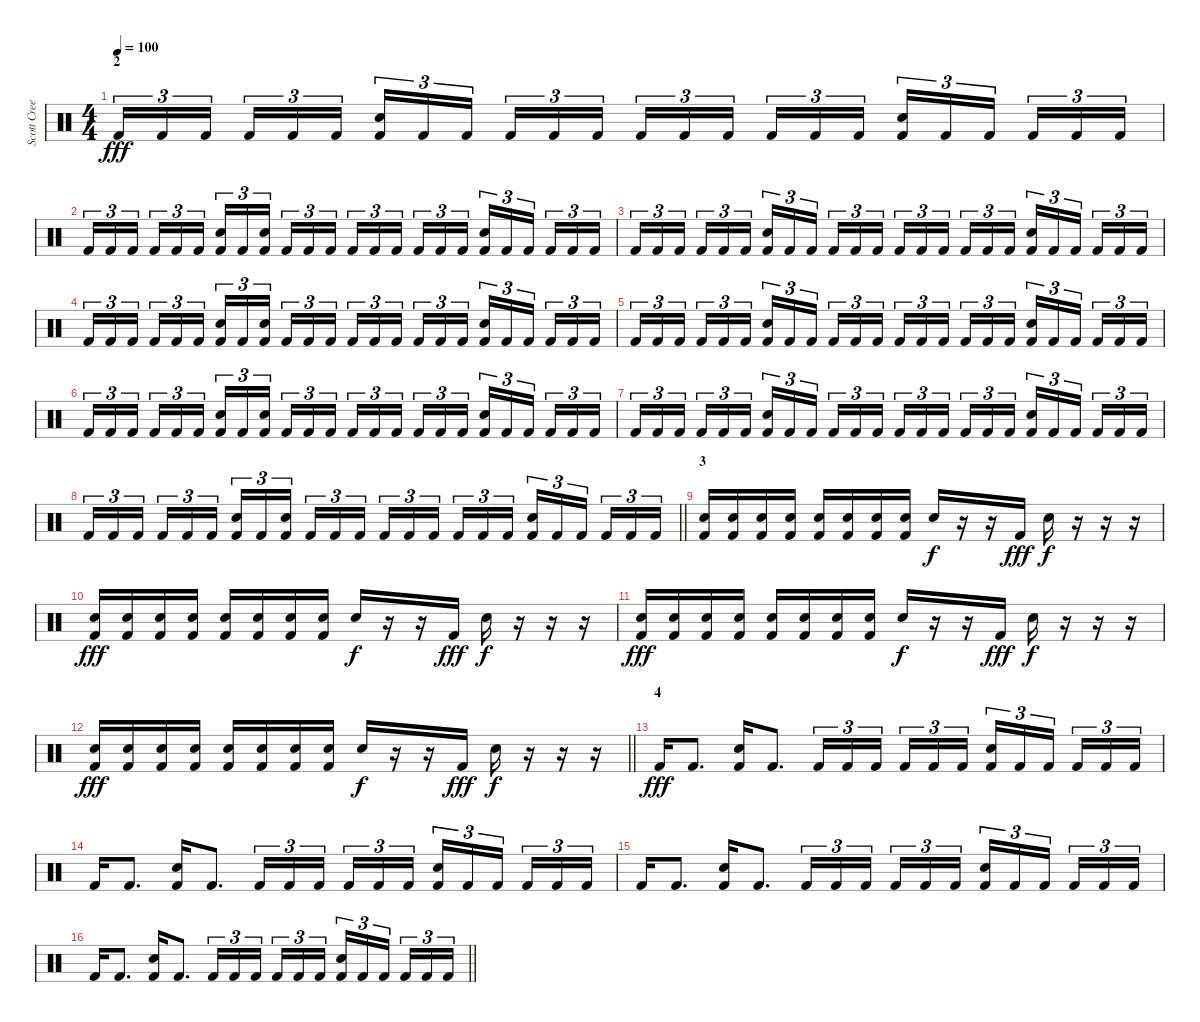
\track ("Scott Creekmore" "Scott Cree") {instrument percussion}
\staff {score}
\articulation defaults
\ts (4 4)
\section ("" "2")
\tempo 100
\clef neutral
\ks c "Kick (hit) 2".16{tu (3 2) dy fff} "Kick (hit) 2".16{tu (3 2)} "Kick (hit) 2".16{tu (3 2) beam splitsecondary} "Kick (hit) 2".16{tu (3 2)} "Kick (hit) 2".16{tu (3 2)} "Kick (hit) 2".16{tu (3 2)}
("Electric Snare (hit)" "Kick (hit) 2").16{tu (3 2)} "Kick (hit) 2".16{tu (3 2)} "Kick (hit) 2".16{tu (3 2) beam splitsecondary} "Kick (hit) 2".16{tu (3 2)} "Kick (hit) 2".16{tu (3 2)} "Kick (hit) 2".16{tu (3 2)} "Kick (hit) 2".16{tu (3 2)} "Kick (hit) 2".16{tu (3 2)} "Kick (hit) 2".16{tu (3 2) beam splitsecondary} "Kick (hit) 2".16{tu (3 2)} "Kick (hit) 2".16{tu (3 2)} "Kick (hit) 2".16{tu (3 2)} ("Electric Snare (hit)" "Kick (hit) 2").16{tu (3 2)} "Kick (hit) 2".16{tu (3 2)} "Kick (hit) 2".16{tu (3 2) beam splitsecondary} "Kick (hit) 2".16{tu (3 2)} "Kick (hit) 2".16{tu (3 2)} "Kick (hit) 2".16{tu (3 2)} |
"Kick (hit) 2".16{tu (3 2)} "Kick (hit) 2".16{tu (3 2)} "Kick (hit) 2".16{tu (3 2) beam splitsecondary} "Kick (hit) 2".16{tu (3 2)} "Kick (hit) 2".16{tu (3 2)} "Kick (hit) 2".16{tu (3 2)} ("Electric Snare (hit)" "Kick (hit) 2").16{tu (3 2)} "Kick (hit) 2".16{tu (3 2)} ("Electric Snare (hit)" "Kick (hit) 2").16{tu (3 2) beam splitsecondary} "Kick (hit) 2".16{tu (3 2)} "Kick (hit) 2".16{tu (3 2)} "Kick (hit) 2".16{tu (3 2)} "Kick (hit) 2".16{tu (3 2)} "Kick (hit) 2".16{tu (3 2)} "Kick (hit) 2".16{tu (3 2) beam splitsecondary} "Kick (hit) 2".16{tu (3 2)} "Kick (hit) 2".16{tu (3 2)} "Kick (hit) 2".16{tu (3 2)} ("Electric Snare (hit)" "Kick (hit) 2").16{tu (3 2)} "Kick (hit) 2".16{tu (3 2)} "Kick (hit) 2".16{tu (3 2) beam splitsecondary} "Kick (hit) 2".16{tu (3 2)} "Kick (hit) 2".16{tu (3 2)} "Kick (hit) 2".16{tu (3 2)} |
"Kick (hit) 2".16{tu (3 2)} "Kick (hit) 2".16{tu (3 2)} "Kick (hit) 2".16{tu (3 2) beam splitsecondary} "Kick (hit) 2".16{tu (3 2)} "Kick (hit) 2".16{tu (3 2)} "Kick (hit) 2".16{tu (3 2)} ("Electric Snare (hit)" "Kick (hit) 2").16{tu (3 2)} "Kick (hit) 2".16{tu (3 2)} "Kick (hit) 2".16{tu (3 2) beam splitsecondary} "Kick (hit) 2".16{tu (3 2)} "Kick (hit) 2".16{tu (3 2)} "Kick (hit) 2".16{tu (3 2)} "Kick (hit) 2".16{tu (3 2)} "Kick (hit) 2".16{tu (3 2)} "Kick (hit) 2".16{tu (3 2) beam splitsecondary} "Kick (hit) 2".16{tu (3 2)} "Kick (hit) 2".16{tu (3 2)} "Kick (hit) 2".16{tu (3 2)} ("Electric Snare (hit)" "Kick (hit) 2").16{tu (3 2)} "Kick (hit) 2".16{tu (3 2)} "Kick (hit) 2".16{tu (3 2) beam splitsecondary} "Kick (hit) 2".16{tu (3 2)} "Kick (hit) 2".16{tu (3 2)} "Kick (hit) 2".16{tu (3 2)} |
"Kick (hit) 2".16{tu (3 2)} "Kick (hit) 2".16{tu (3 2)} "Kick (hit) 2".16{tu (3 2) beam splitsecondary} "Kick (hit) 2".16{tu (3 2)} "Kick (hit) 2".16{tu (3 2)} "Kick (hit) 2".16{tu (3 2)} ("Electric Snare (hit)" "Kick (hit) 2").16{tu (3 2)} "Kick (hit) 2".16{tu (3 2)} ("Electric Snare (hit)" "Kick (hit) 2").16{tu (3 2) beam splitsecondary} "Kick (hit) 2".16{tu (3 2)} "Kick (hit) 2".16{tu (3 2)} "Kick (hit) 2".16{tu (3 2)} "Kick (hit) 2".16{tu (3 2)} "Kick (hit) 2".16{tu (3 2)} "Kick (hit) 2".16{tu (3 2) beam splitsecondary} "Kick (hit) 2".16{tu (3 2)} "Kick (hit) 2".16{tu (3 2)} "Kick (hit) 2".16{tu (3 2)} ("Electric Snare (hit)" "Kick (hit) 2").16{tu (3 2)} "Kick (hit) 2".16{tu (3 2)} "Kick (hit) 2".16{tu (3 2) beam splitsecondary} "Kick (hit) 2".16{tu (3 2)} "Kick (hit) 2".16{tu (3 2)} "Kick (hit) 2".16{tu (3 2)} |
"Kick (hit) 2".16{tu (3 2)} "Kick (hit) 2".16{tu (3 2)} "Kick (hit) 2".16{tu (3 2) beam splitsecondary} "Kick (hit) 2".16{tu (3 2)} "Kick (hit) 2".16{tu (3 2)} "Kick (hit) 2".16{tu (3 2)} ("Electric Snare (hit)" "Kick (hit) 2").16{tu (3 2)} "Kick (hit) 2".16{tu (3 2)} "Kick (hit) 2".16{tu (3 2) beam splitsecondary} "Kick (hit) 2".16{tu (3 2)} "Kick (hit) 2".16{tu (3 2)} "Kick (hit) 2".16{tu (3 2)} "Kick (hit) 2".16{tu (3 2)} "Kick (hit) 2".16{tu (3 2)} "Kick (hit) 2".16{tu (3 2) beam splitsecondary} "Kick (hit) 2".16{tu (3 2)} "Kick (hit) 2".16{tu (3 2)} "Kick (hit) 2".16{tu (3 2)} ("Electric Snare (hit)" "Kick (hit) 2").16{tu (3 2)} "Kick (hit) 2".16{tu (3 2)} "Kick (hit) 2".16{tu (3 2) beam splitsecondary} "Kick (hit) 2".16{tu (3 2)} "Kick (hit) 2".16{tu (3 2)} "Kick (hit) 2".16{tu (3 2)} |
"Kick (hit) 2".16{tu (3 2)} "Kick (hit) 2".16{tu (3 2)} "Kick (hit) 2".16{tu (3 2) beam splitsecondary} "Kick (hit) 2".16{tu (3 2)} "Kick (hit) 2".16{tu (3 2)} "Kick (hit) 2".16{tu (3 2)} ("Electric Snare (hit)" "Kick (hit) 2").16{tu (3 2)} "Kick (hit) 2".16{tu (3 2)} ("Electric Snare (hit)" "Kick (hit) 2").16{tu (3 2) beam splitsecondary} "Kick (hit) 2".16{tu (3 2)} "Kick (hit) 2".16{tu (3 2)} "Kick (hit) 2".16{tu (3 2)} "Kick (hit) 2".16{tu (3 2)} "Kick (hit) 2".16{tu (3 2)} "Kick (hit) 2".16{tu (3 2) beam splitsecondary} "Kick (hit) 2".16{tu (3 2)} "Kick (hit) 2".16{tu (3 2)} "Kick (hit) 2".16{tu (3 2)} ("Electric Snare (hit)" "Kick (hit) 2").16{tu (3 2)} "Kick (hit) 2".16{tu (3 2)} "Kick (hit) 2".16{tu (3 2) beam splitsecondary} "Kick (hit) 2".16{tu (3 2)} "Kick (hit) 2".16{tu (3 2)} "Kick (hit) 2".16{tu (3 2)} |
"Kick (hit) 2".16{tu (3 2)} "Kick (hit) 2".16{tu (3 2)} "Kick (hit) 2".16{tu (3 2) beam splitsecondary} "Kick (hit) 2".16{tu (3 2)} "Kick (hit) 2".16{tu (3 2)} "Kick (hit) 2".16{tu (3 2)} ("Electric Snare (hit)" "Kick (hit) 2").16{tu (3 2)} "Kick (hit) 2".16{tu (3 2)} "Kick (hit) 2".16{tu (3 2) beam splitsecondary} "Kick (hit) 2".16{tu (3 2)} "Kick (hit) 2".16{tu (3 2)} "Kick (hit) 2".16{tu (3 2)} "Kick (hit) 2".16{tu (3 2)} "Kick (hit) 2".16{tu (3 2)} "Kick (hit) 2".16{tu (3 2) beam splitsecondary} "Kick (hit) 2".16{tu (3 2)} "Kick (hit) 2".16{tu (3 2)} "Kick (hit) 2".16{tu (3 2)} ("Electric Snare (hit)" "Kick (hit) 2").16{tu (3 2)} "Kick (hit) 2".16{tu (3 2)} "Kick (hit) 2".16{tu (3 2) beam splitsecondary} "Kick (hit) 2".16{tu (3 2)} "Kick (hit) 2".16{tu (3 2)} "Kick (hit) 2".16{tu (3 2)} |
\barLineRight lightlight "Kick (hit) 2".16{tu (3 2)} "Kick (hit) 2".16{tu (3 2)} "Kick (hit) 2".16{tu (3 2) beam splitsecondary} "Kick (hit) 2".16{tu (3 2)} "Kick (hit) 2".16{tu (3 2)} "Kick (hit) 2".16{tu (3 2)}
("Electric Snare (hit)" "Kick (hit) 2").16{tu (3 2)} "Kick (hit) 2".16{tu (3 2)} ("Electric Snare (hit)" "Kick (hit) 2").16{tu (3 2) beam splitsecondary} "Kick (hit) 2".16{tu (3 2)} "Kick (hit) 2".16{tu (3 2)} "Kick (hit) 2".16{tu (3 2)} "Kick (hit) 2".16{tu (3 2)} "Kick (hit) 2".16{tu (3 2)} "Kick (hit) 2".16{tu (3 2) beam splitsecondary} "Kick (hit) 2".16{tu (3 2)} "Kick (hit) 2".16{tu (3 2)} "Kick (hit) 2".16{tu (3 2)} ("Electric Snare (hit)" "Kick (hit) 2").16{tu (3 2)} "Kick (hit) 2".16{tu (3 2)} "Kick (hit) 2".16{tu (3 2) beam splitsecondary} "Kick (hit) 2".16{tu (3 2)} "Kick (hit) 2".16{tu (3 2)} "Kick (hit) 2".16{tu (3 2)} |
\section ("" "3")
("Electric Snare (hit)" "Kick (hit) 2").16 ("Electric Snare (hit)" "Kick (hit) 2").16 ("Electric Snare (hit)" "Kick (hit) 2").16 ("Electric Snare (hit)" "Kick (hit) 2").16 ("Electric Snare (hit)" "Kick (hit) 2").16 ("Electric Snare (hit)" "Kick (hit) 2").16 ("Electric Snare (hit)" "Kick (hit) 2").16 ("Electric Snare (hit)" "Kick (hit) 2").16 "Electric Snare (hit)".16{dy f} r.16 r.16 "Kick (hit) 2".16{dy fff} "Electric Snare (hit)".16{dy f} r.16 r.16 r.16 |
("Electric Snare (hit)" "Kick (hit) 2").16{dy fff} ("Electric Snare (hit)" "Kick (hit) 2").16 ("Electric Snare (hit)" "Kick (hit) 2").16 ("Electric Snare (hit)" "Kick (hit) 2").16 ("Electric Snare (hit)" "Kick (hit) 2").16 ("Electric Snare (hit)" "Kick (hit) 2").16 ("Electric Snare (hit)" "Kick (hit) 2").16 ("Electric Snare (hit)" "Kick (hit) 2").16 "Electric Snare (hit)".16{dy f} r.16 r.16 "Kick (hit) 2".16{dy fff} "Electric Snare (hit)".16{dy f} r.16 r.16 r.16 |
("Electric Snare (hit)" "Kick (hit) 2").16{dy fff} ("Electric Snare (hit)" "Kick (hit) 2").16 ("Electric Snare (hit)" "Kick (hit) 2").16 ("Electric Snare (hit)" "Kick (hit) 2").16 ("Electric Snare (hit)" "Kick (hit) 2").16 ("Electric Snare (hit)" "Kick (hit) 2").16 ("Electric Snare (hit)" "Kick (hit) 2").16 ("Electric Snare (hit)" "Kick (hit) 2").16 "Electric Snare (hit)".16{dy f} r.16 r.16 "Kick (hit) 2".16{dy fff} "Electric Snare (hit)".16{dy f} r.16 r.16 r.16 |
\barLineRight lightlight
("Electric Snare (hit)" "Kick (hit) 2").16{dy fff} ("Electric Snare (hit)" "Kick (hit) 2").16 ("Electric Snare (hit)" "Kick (hit) 2").16 ("Electric Snare (hit)" "Kick (hit) 2").16 ("Electric Snare (hit)" "Kick (hit) 2").16 ("Electric Snare (hit)" "Kick (hit) 2").16 ("Electric Snare (hit)" "Kick (hit) 2").16 ("Electric Snare (hit)" "Kick (hit) 2").16 "Electric Snare (hit)".16{dy f} r.16 r.16 "Kick (hit) 2".16{dy fff} "Electric Snare (hit)".16{dy f} r.16 r.16 r.16 |
\section ("" "4")
"Kick (hit) 2".16{dy fff} "Kick (hit) 2".8{d} ("Electric Snare (hit)" "Kick (hit) 2").16 "Kick (hit) 2".8{d} "Kick (hit) 2".16{tu (3 2)} "Kick (hit) 2".16{tu (3 2)} "Kick (hit) 2".16{tu (3 2) beam splitsecondary} "Kick (hit) 2".16{tu (3 2)} "Kick (hit) 2".16{tu (3 2)} "Kick (hit) 2".16{tu (3 2)} ("Electric Snare (hit)" "Kick (hit) 2").16{tu (3 2)} "Kick (hit) 2".16{tu (3 2)} "Kick (hit) 2".16{tu (3 2) beam splitsecondary} "Kick (hit) 2".16{tu (3 2)} "Kick (hit) 2".16{tu (3 2)} "Kick (hit) 2".16{tu (3 2)} |
"Kick (hit) 2".16 "Kick (hit) 2".8{d} ("Electric Snare (hit)" "Kick (hit) 2").16 "Kick (hit) 2".8{d} "Kick (hit) 2".16{tu (3 2)} "Kick (hit) 2".16{tu (3 2)} "Kick (hit) 2".16{tu (3 2) beam splitsecondary} "Kick (hit) 2".16{tu (3 2)} "Kick (hit) 2".16{tu (3 2)} "Kick (hit) 2".16{tu (3 2)} ("Electric Snare (hit)" "Kick (hit) 2").16{tu (3 2)} "Kick (hit) 2".16{tu (3 2)} "Kick (hit) 2".16{tu (3 2) beam splitsecondary} "Kick (hit) 2".16{tu (3 2)} "Kick (hit) 2".16{tu (3 2)} "Kick (hit) 2".16{tu (3 2)} |
"Kick (hit) 2".16 "Kick (hit) 2".8{d} ("Electric Snare (hit)" "Kick (hit) 2").16 "Kick (hit) 2".8{d} "Kick (hit) 2".16{tu (3 2)} "Kick (hit) 2".16{tu (3 2)} "Kick (hit) 2".16{tu (3 2) beam splitsecondary} "Kick (hit) 2".16{tu (3 2)} "Kick (hit) 2".16{tu (3 2)} "Kick (hit) 2".16{tu (3 2)} ("Electric Snare (hit)" "Kick (hit) 2").16{tu (3 2)} "Kick (hit) 2".16{tu (3 2)} "Kick (hit) 2".16{tu (3 2) beam splitsecondary} "Kick (hit) 2".16{tu (3 2)} "Kick (hit) 2".16{tu (3 2)} "Kick (hit) 2".16{tu (3 2)} |
\barLineRight lightlight "Kick (hit) 2".16 "Kick (hit) 2".8{d}
("Electric Snare (hit)" "Kick (hit) 2").16 "Kick (hit) 2".8{d} "Kick (hit) 2".16{tu (3 2)} "Kick (hit) 2".16{tu (3 2)} "Kick (hit) 2".16{tu (3 2) beam splitsecondary} "Kick (hit) 2".16{tu (3 2)} "Kick (hit) 2".16{tu (3 2)} "Kick (hit) 2".16{tu (3 2)} ("Electric Snare (hit)" "Kick (hit) 2").16{tu (3 2)} "Kick (hit) 2".16{tu (3 2)} "Kick (hit) 2".16{tu (3 2) beam splitsecondary} "Kick (hit) 2".16{tu (3 2)} "Kick (hit) 2".16{tu (3 2)} "Kick (hit) 2".16{tu (3 2)}
